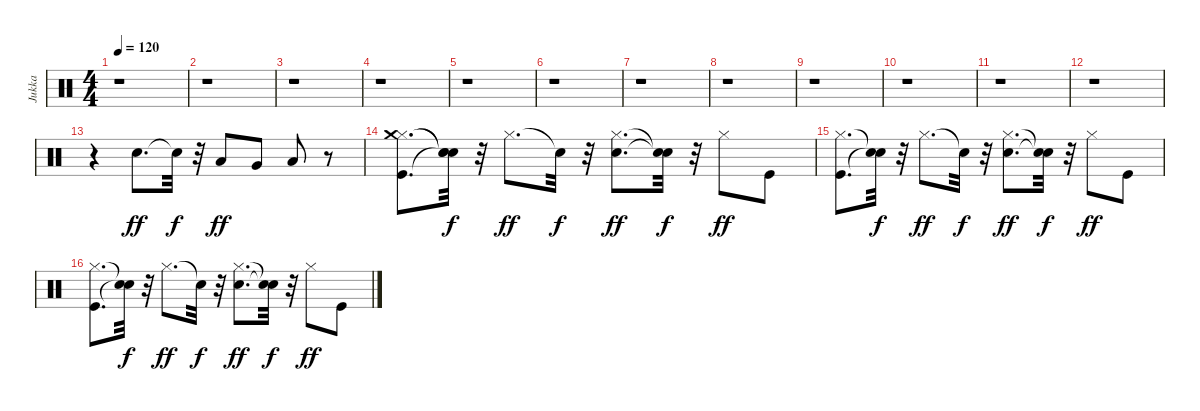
\track ("Jukka" "Jukka") {instrument percussion}
\staff {score}
\articulation defaults
\ts (4 4)
\tempo 120
\clef neutral
\ks c
r.1{dy ff} |
r.1 |
r.1 |
r.1 |
r.1 |
r.1 |
r.1 |
r.1 |
r.1 |
r.1 |
r.1 |
r.1 |
r.4 "Electric Snare (hit)".8{d} "Snare (hit)"{t}.32{dy f} r.32 "Low Tom (hit)".8{dy ff} "Very Low Tom (hit)".8 "Low Floor Tom (hit)".8 r.8 |
("Kick (hit)" "Hi-Hat (closed)" "Crash medium (hit)").8{d} ("Snare (hit)"{t} "Snare (hit)"{t} "Snare (hit)"{t}).32{dy f} r.32 "Hi-Hat (closed)".8{d dy ff} "Snare (hit)"{t}.32{dy f} r.32 ("Electric Snare (hit)" "Hi-Hat (closed)").8{d dy ff} ("Snare (hit)"{t} "Snare (hit)"{t}).32{dy f} r.32 "Hi-Hat (closed)".8{dy ff} "Kick (hit)".8 |
("Kick (hit)" "Hi-Hat (closed)").8{d} ("Snare (hit)"{t} "Snare (hit)"{t}).32{dy f} r.32 "Hi-Hat (closed)".8{d dy ff} "Snare (hit)"{t}.32{dy f} r.32 ("Electric Snare (hit)" "Hi-Hat (closed)").8{d dy ff} ("Snare (hit)"{t} "Snare (hit)"{t}).32{dy f} r.32 "Hi-Hat (closed)".8{dy ff} "Kick (hit)".8 |
("Kick (hit)" "Hi-Hat (closed)").8{d} ("Snare (hit)"{t} "Snare (hit)"{t}).32{dy f} r.32 "Hi-Hat (closed)".8{d dy ff} "Snare (hit)"{t}.32{dy f} r.32 ("Electric Snare (hit)" "Hi-Hat (closed)").8{d dy ff} ("Snare (hit)"{t} "Snare (hit)"{t}).32{dy f} r.32 "Hi-Hat (closed)".8{dy ff} "Kick (hit)".8
